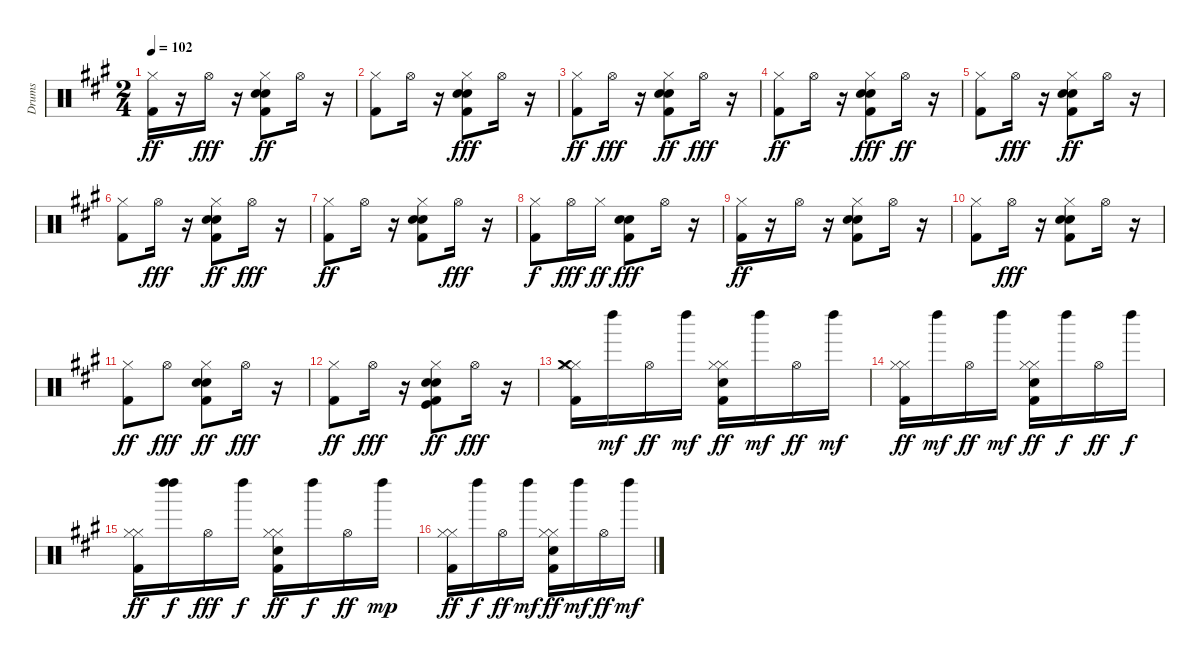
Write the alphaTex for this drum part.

\track ("Drums" "Drums") {instrument percussion}
\staff {score}
\articulation defaults
\ts (2 4)
\tempo 102
\clef neutral
\ks a
("Kick (hit) 2" "Hi-Hat (closed)").16{dy ff} r.16 "Hi-Hat (open)".16{dy fff} r.16 ("Kick (hit) 2" "Metronome (bell)" "Electric Snare (hit)" "Hi-Hat (closed)").8{dy ff} "Hi-Hat (open)".16 r.16 |
("Kick (hit) 2" "Hi-Hat (closed)").8 "Hi-Hat (open)".16 r.16 ("Kick (hit) 2" "Metronome (bell)" "Electric Snare (hit)" "Hi-Hat (closed)").8{dy fff} "Hi-Hat (open)".16 r.16 |
("Kick (hit) 2" "Hi-Hat (closed)").8{dy ff} "Hi-Hat (open)".16{dy fff} r.16 ("Kick (hit) 2" "Metronome (bell)" "Electric Snare (hit)" "Hi-Hat (closed)").8{dy ff} "Hi-Hat (open)".16{dy fff} r.16 |
("Kick (hit) 2" "Hi-Hat (closed)").8{dy ff} "Hi-Hat (open)".16 r.16 ("Kick (hit) 2" "Metronome (bell)" "Electric Snare (hit)" "Hi-Hat (closed)").8{dy fff} "Hi-Hat (open)".16{dy ff} r.16 |
("Kick (hit) 2" "Hi-Hat (closed)").8 "Hi-Hat (open)".16{dy fff} r.16 ("Kick (hit) 2" "Metronome (bell)" "Electric Snare (hit)" "Hi-Hat (closed)").8{dy ff} "Hi-Hat (open)".16 r.16 |
("Kick (hit) 2" "Hi-Hat (closed)").8 "Hi-Hat (open)".16{dy fff} r.16 ("Kick (hit) 2" "Metronome (bell)" "Electric Snare (hit)" "Hi-Hat (closed)").8{dy ff} "Hi-Hat (open)".16{dy fff} r.16 |
("Kick (hit) 2" "Hi-Hat (closed)").8{dy ff} "Hi-Hat (open)".16 r.16 ("Kick (hit) 2" "Metronome (bell)" "Electric Snare (hit)" "Hi-Hat (closed)").8 "Hi-Hat (open)".16{dy fff} r.16 |
("Kick (hit) 2" "Hi-Hat (closed)").8{dy f} "Hi-Hat (open)".16{dy fff} "Hi-Hat (closed)".16{dy ff} ("Kick (hit) 2" "Metronome (bell)" "Electric Snare (hit)").8{dy fff} "Hi-Hat (open)".16 r.16 |
("Kick (hit) 2" "Hi-Hat (closed)").16{dy ff} r.16 "Hi-Hat (open)".16 r.16 ("Kick (hit) 2" "Metronome (bell)" "Electric Snare (hit)" "Hi-Hat (closed)").8 "Hi-Hat (open)".16 r.16 |
("Kick (hit) 2" "Hi-Hat (closed)").8 "Hi-Hat (open)".16{dy fff} r.16 ("Kick (hit) 2" "Metronome (bell)" "Electric Snare (hit)" "Hi-Hat (closed)").8 "Hi-Hat (open)".16 r.16 |
("Kick (hit) 2" "Hi-Hat (closed)").8{dy ff} "Hi-Hat (open)".8{dy fff} ("Kick (hit) 2" "Metronome (bell)" "Electric Snare (hit)" "Hi-Hat (closed)").8{dy ff} "Hi-Hat (open)".16{dy fff} r.16 |
("Kick (hit) 2" "Hi-Hat (closed)").8{dy ff} "Hi-Hat (open)".16{dy fff} r.16 ("Kick (hit) 2" "Metronome (bell)" "Kick (hit)" "Electric Snare (hit)" "Hi-Hat (closed)").8{dy ff} "Hi-Hat (open)".16{dy fff} r.16 |
("Kick (hit) 2" "Hi-Hat (closed)" "Hi-Hat (closed)" "Crash medium (hit)").16 "Left Maraca (hit)".16{dy mf} "Hi-Hat (open)".16{dy ff} "Left Maraca (hit)".16{dy mf} ("Kick (hit) 2" "Electric Snare (hit)" "Hi-Hat (closed)" "Hi-Hat (closed)").16{dy ff} "Left Maraca (hit)".16{dy mf} "Hi-Hat (open)".16{dy ff} "Left Maraca (hit)".16{dy mf} |
("Kick (hit) 2" "Hi-Hat (closed)" "Hi-Hat (closed)").16{dy ff} "Left Maraca (hit)".16{dy mf} "Hi-Hat (open)".16{dy ff} "Left Maraca (hit)".16{dy mf} ("Kick (hit) 2" "Electric Snare (hit)" "Hi-Hat (closed)" "Hi-Hat (closed)").16{dy ff} "Left Maraca (hit)".16{dy f} "Hi-Hat (open)".16{dy ff} "Left Maraca (hit)".16{dy f} |
("Kick (hit) 2" "Hi-Hat (closed)" "Hi-Hat (closed)").16{dy ff} ("Left Maraca (hit)" "Left Maraca (hit)").16{dy f} "Hi-Hat (open)".16{dy fff} "Left Maraca (hit)".16{dy f} ("Kick (hit) 2" "Electric Snare (hit)" "Hi-Hat (closed)" "Hi-Hat (closed)").16{dy ff} "Left Maraca (hit)".16{dy f} "Hi-Hat (open)".16{dy ff} "Left Maraca (hit)".16{dy mp} |
("Kick (hit) 2" "Hi-Hat (closed)" "Hi-Hat (closed)").16{dy ff} "Left Maraca (hit)".16{dy f} "Hi-Hat (open)".16{dy ff} "Left Maraca (hit)".16{dy mf} ("Kick (hit) 2" "Electric Snare (hit)" "Hi-Hat (closed)" "Hi-Hat (closed)").16{dy ff} "Left Maraca (hit)".16{dy mf} "Hi-Hat (open)".16{dy ff} "Left Maraca (hit)".16{dy mf}
